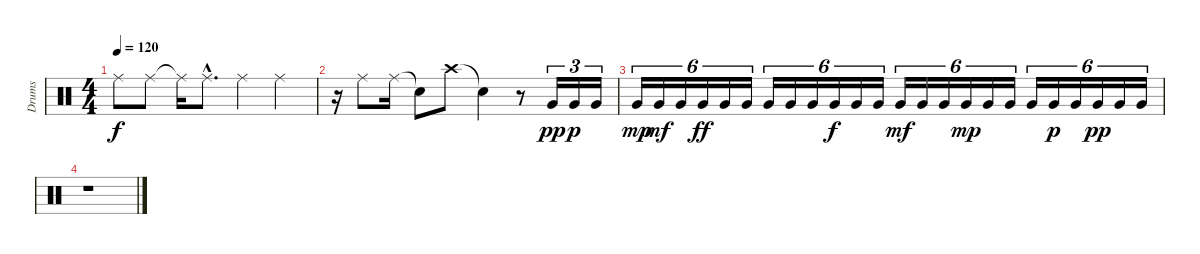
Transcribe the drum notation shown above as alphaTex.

\track ("Drums" "Drums") {instrument percussion}
\staff {score}
\articulation defaults
\ts (4 4)
\tempo 120
\clef neutral
\ks c "Ride (middle)".8{dy f} "Ride (middle)".8 "Ride (middle)"{t}.16 "Ride (middle)"{hac}.8{d} "Ride (middle)".4 "Ride (middle)".4
|
r.16 "Ride (middle)".8 "Ride (middle)".16 "Snare (hit)"{t}.8 "Crash high (hit)".8 "Snare (hit)"{t}.4 r.8 "Very Low Tom (hit)".16{tu (3 2) dy pp} "Very Low Tom (hit)".16{tu (3 2) dy p} "Very Low Tom (hit)".16{tu (3 2)} |
"Very Low Tom (hit)".16{tu (6 4) dy mp} "Very Low Tom (hit)".16{tu (6 4) dy mf} "Very Low Tom (hit)".16{tu (6 4)} "Very Low Tom (hit)".16{tu (6 4) dy ff} "Very Low Tom (hit)".16{tu (6 4)} "Very Low Tom (hit)".16{tu (6 4)} "Very Low Tom (hit)".16{tu (6 4)} "Very Low Tom (hit)".16{tu (6 4)} "Very Low Tom (hit)".16{tu (6 4)} "Very Low Tom (hit)".16{tu (6 4) dy f} "Very Low Tom (hit)".16{tu (6 4)} "Very Low Tom (hit)".16{tu (6 4)} "Very Low Tom (hit)".16{tu (6 4) dy mf} "Very Low Tom (hit)".16{tu (6 4)} "Very Low Tom (hit)".16{tu (6 4)} "Very Low Tom (hit)".16{tu (6 4) dy mp} "Very Low Tom (hit)".16{tu (6 4)} "Very Low Tom (hit)".16{tu (6 4)} "Very Low Tom (hit)".16{tu (6 4)} "Very Low Tom (hit)".16{tu (6 4) dy p} "Very Low Tom (hit)".16{tu (6 4)} "Very Low Tom (hit)".16{tu (6 4) dy pp} "Very Low Tom (hit)".16{tu (6 4)} "Very Low Tom (hit)".16{tu (6 4)} |
r.1
